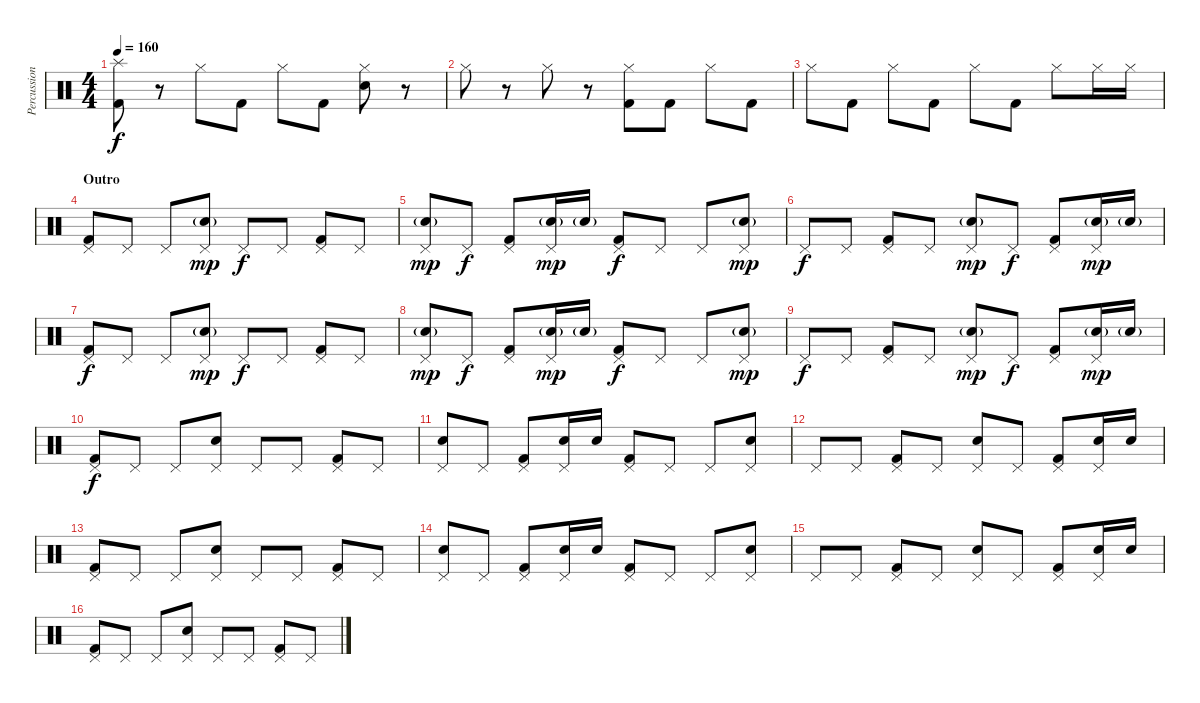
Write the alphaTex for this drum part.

\track ("Percussion" "Percussion") {instrument percussion}
\staff {score}
\articulation defaults
\ts (4 4)
\tempo 160
\clef neutral
\ks c
("Splash (hit)" "Kick (hit) 2").8{dy f} r.8 "Hi-Hat (closed)".8 "Kick (hit) 2".8 "Hi-Hat (closed)".8 "Kick (hit) 2".8 ("Hi-Hat (closed)" "Electric Snare (hit)").8 r.8 |
"Hi-Hat (closed)".8 r.8 "Hi-Hat (closed)".8 r.8 ("Hi-Hat (closed)" "Kick (hit) 2").8 "Kick (hit) 2".8 "Hi-Hat (closed)".8 "Kick (hit) 2".8 |
"Hi-Hat (closed)".8 "Kick (hit) 2".8 "Hi-Hat (closed)".8 "Kick (hit) 2".8 "Hi-Hat (closed)".8 "Kick (hit) 2".8 "Hi-Hat (closed)".8 "Hi-Hat (closed)".16 "Hi-Hat (closed)".16 |
\section ("" "Outro")
("Pedal Hi-Hat (hit)" "Kick (hit) 2").8 "Pedal Hi-Hat (hit)".8 "Pedal Hi-Hat (hit)".8 ("Pedal Hi-Hat (hit)" "Electric Snare (hit)"{g}).8{dy mp} "Pedal Hi-Hat (hit)".8{dy f} "Pedal Hi-Hat (hit)".8 ("Pedal Hi-Hat (hit)" "Kick (hit) 2").8 "Pedal Hi-Hat (hit)".8 |
("Pedal Hi-Hat (hit)" "Electric Snare (hit)"{g}).8{dy mp} "Pedal Hi-Hat (hit)".8{dy f} ("Pedal Hi-Hat (hit)" "Kick (hit) 2").8 ("Pedal Hi-Hat (hit)" "Electric Snare (hit)"{g}).16{dy mp} "Electric Snare (hit)"{g}.16 ("Pedal Hi-Hat (hit)" "Kick (hit) 2").8{dy f} "Pedal Hi-Hat (hit)".8 "Pedal Hi-Hat (hit)".8 ("Pedal Hi-Hat (hit)" "Electric Snare (hit)"{g}).8{dy mp} |
"Pedal Hi-Hat (hit)".8{dy f} "Pedal Hi-Hat (hit)".8 ("Pedal Hi-Hat (hit)" "Kick (hit) 2").8 "Pedal Hi-Hat (hit)".8 ("Pedal Hi-Hat (hit)" "Electric Snare (hit)"{g}).8{dy mp} "Pedal Hi-Hat (hit)".8{dy f} ("Pedal Hi-Hat (hit)" "Kick (hit) 2").8 ("Pedal Hi-Hat (hit)" "Electric Snare (hit)"{g}).16{dy mp} "Electric Snare (hit)"{g}.16 |
("Pedal Hi-Hat (hit)" "Kick (hit) 2").8{dy f} "Pedal Hi-Hat (hit)".8 "Pedal Hi-Hat (hit)".8 ("Pedal Hi-Hat (hit)" "Electric Snare (hit)"{g}).8{dy mp} "Pedal Hi-Hat (hit)".8{dy f} "Pedal Hi-Hat (hit)".8 ("Pedal Hi-Hat (hit)" "Kick (hit) 2").8 "Pedal Hi-Hat (hit)".8 |
("Pedal Hi-Hat (hit)" "Electric Snare (hit)"{g}).8{dy mp} "Pedal Hi-Hat (hit)".8{dy f} ("Pedal Hi-Hat (hit)" "Kick (hit) 2").8 ("Pedal Hi-Hat (hit)" "Electric Snare (hit)"{g}).16{dy mp} "Electric Snare (hit)"{g}.16 ("Pedal Hi-Hat (hit)" "Kick (hit) 2").8{dy f} "Pedal Hi-Hat (hit)".8 "Pedal Hi-Hat (hit)".8 ("Pedal Hi-Hat (hit)" "Electric Snare (hit)"{g}).8{dy mp} |
"Pedal Hi-Hat (hit)".8{dy f} "Pedal Hi-Hat (hit)".8 ("Pedal Hi-Hat (hit)" "Kick (hit) 2").8 "Pedal Hi-Hat (hit)".8 ("Pedal Hi-Hat (hit)" "Electric Snare (hit)"{g}).8{dy mp} "Pedal Hi-Hat (hit)".8{dy f} ("Pedal Hi-Hat (hit)" "Kick (hit) 2").8 ("Pedal Hi-Hat (hit)" "Electric Snare (hit)"{g}).16{dy mp} "Electric Snare (hit)"{g}.16 |
("Pedal Hi-Hat (hit)" "Kick (hit) 2").8{dy f} "Pedal Hi-Hat (hit)".8 "Pedal Hi-Hat (hit)".8 ("Pedal Hi-Hat (hit)" "Electric Snare (hit)").8 "Pedal Hi-Hat (hit)".8 "Pedal Hi-Hat (hit)".8 ("Pedal Hi-Hat (hit)" "Kick (hit) 2").8 "Pedal Hi-Hat (hit)".8 |
("Pedal Hi-Hat (hit)" "Electric Snare (hit)").8 "Pedal Hi-Hat (hit)".8 ("Pedal Hi-Hat (hit)" "Kick (hit) 2").8 ("Pedal Hi-Hat (hit)" "Electric Snare (hit)").16 "Electric Snare (hit)".16 ("Pedal Hi-Hat (hit)" "Kick (hit) 2").8 "Pedal Hi-Hat (hit)".8 "Pedal Hi-Hat (hit)".8 ("Pedal Hi-Hat (hit)" "Electric Snare (hit)").8 |
"Pedal Hi-Hat (hit)".8 "Pedal Hi-Hat (hit)".8 ("Pedal Hi-Hat (hit)" "Kick (hit) 2").8 "Pedal Hi-Hat (hit)".8 ("Pedal Hi-Hat (hit)" "Electric Snare (hit)").8 "Pedal Hi-Hat (hit)".8 ("Pedal Hi-Hat (hit)" "Kick (hit) 2").8 ("Pedal Hi-Hat (hit)" "Electric Snare (hit)").16 "Electric Snare (hit)".16 |
("Pedal Hi-Hat (hit)" "Kick (hit) 2").8 "Pedal Hi-Hat (hit)".8 "Pedal Hi-Hat (hit)".8 ("Pedal Hi-Hat (hit)" "Electric Snare (hit)").8 "Pedal Hi-Hat (hit)".8 "Pedal Hi-Hat (hit)".8 ("Pedal Hi-Hat (hit)" "Kick (hit) 2").8 "Pedal Hi-Hat (hit)".8 |
("Pedal Hi-Hat (hit)" "Electric Snare (hit)").8 "Pedal Hi-Hat (hit)".8 ("Pedal Hi-Hat (hit)" "Kick (hit) 2").8 ("Pedal Hi-Hat (hit)" "Electric Snare (hit)").16 "Electric Snare (hit)".16 ("Pedal Hi-Hat (hit)" "Kick (hit) 2").8 "Pedal Hi-Hat (hit)".8 "Pedal Hi-Hat (hit)".8 ("Pedal Hi-Hat (hit)" "Electric Snare (hit)").8 |
"Pedal Hi-Hat (hit)".8 "Pedal Hi-Hat (hit)".8 ("Pedal Hi-Hat (hit)" "Kick (hit) 2").8 "Pedal Hi-Hat (hit)".8 ("Pedal Hi-Hat (hit)" "Electric Snare (hit)").8 "Pedal Hi-Hat (hit)".8 ("Pedal Hi-Hat (hit)" "Kick (hit) 2").8 ("Pedal Hi-Hat (hit)" "Electric Snare (hit)").16 "Electric Snare (hit)".16 |
("Pedal Hi-Hat (hit)" "Kick (hit) 2").8 "Pedal Hi-Hat (hit)".8 "Pedal Hi-Hat (hit)".8 ("Pedal Hi-Hat (hit)" "Electric Snare (hit)").8 "Pedal Hi-Hat (hit)".8 "Pedal Hi-Hat (hit)".8 ("Pedal Hi-Hat (hit)" "Kick (hit) 2").8 "Pedal Hi-Hat (hit)".8
